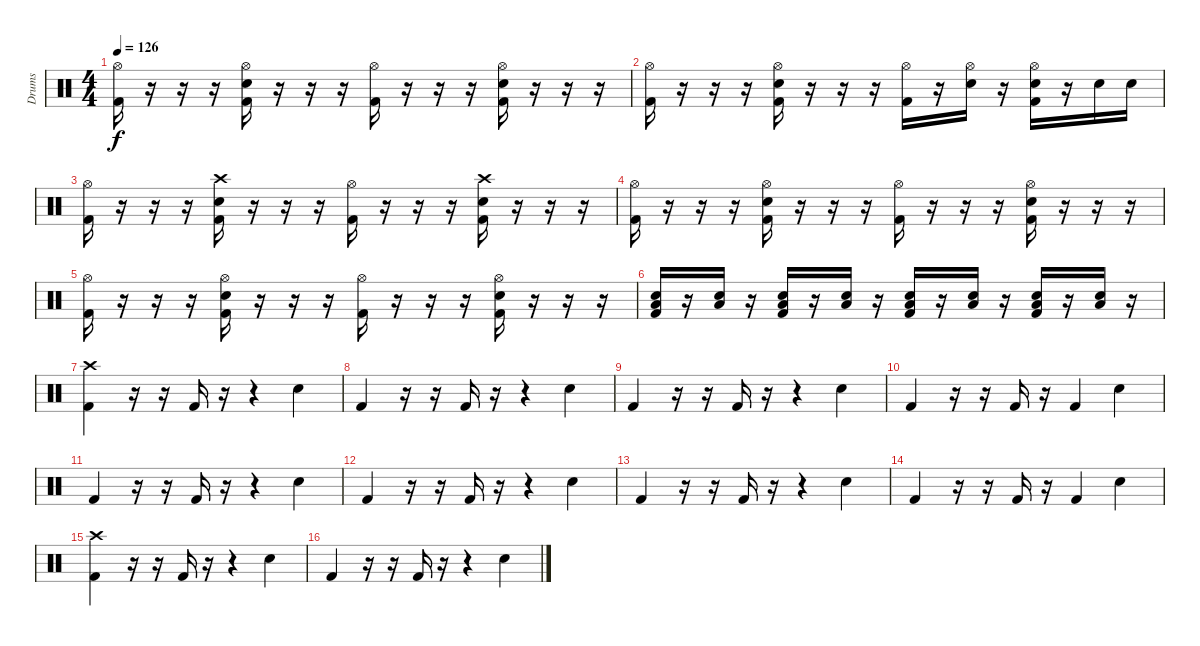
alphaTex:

\track ("Drums" "Drums") {instrument percussion}
\staff {score}
\articulation defaults
\ts (4 4)
\tempo 126
\clef neutral
\ks c
("Hi-Hat (open)" "Kick (hit) 2").16{dy f} r.16 r.16 r.16 ("Hi-Hat (open)" "Snare (hit) 2" "Kick (hit) 2").16 r.16 r.16 r.16 ("Hi-Hat (open)" "Kick (hit) 2").16 r.16 r.16 r.16 ("Hi-Hat (open)" "Snare (hit) 2" "Kick (hit) 2").16 r.16 r.16 r.16 |
("Hi-Hat (open)" "Kick (hit) 2").16 r.16 r.16 r.16 ("Hi-Hat (open)" "Snare (hit) 2" "Kick (hit) 2").16 r.16 r.16 r.16 ("Hi-Hat (open)" "Kick (hit) 2").16 r.16 ("Hi-Hat (open)" "Snare (hit) 2").16 r.16 ("Hi-Hat (open)" "Snare (hit) 2" "Kick (hit) 2").16 r.16 "Snare (hit) 2".16 "Snare (hit) 2".16 |
("Hi-Hat (open)" "Kick (hit) 2").16 r.16 r.16 r.16 ("Crash high (hit)" "Snare (hit) 2" "Kick (hit) 2").16 r.16 r.16 r.16 ("Hi-Hat (open)" "Kick (hit) 2").16 r.16 r.16 r.16 ("Crash high (hit)" "Snare (hit) 2" "Kick (hit) 2").16 r.16 r.16 r.16 |
("Hi-Hat (open)" "Kick (hit) 2").16 r.16 r.16 r.16 ("Hi-Hat (open)" "Snare (hit) 2" "Kick (hit) 2").16 r.16 r.16 r.16 ("Hi-Hat (open)" "Kick (hit) 2").16 r.16 r.16 r.16 ("Hi-Hat (open)" "Snare (hit) 2" "Kick (hit) 2").16 r.16 r.16 r.16 |
("Hi-Hat (open)" "Kick (hit) 2").16 r.16 r.16 r.16 ("Hi-Hat (open)" "Snare (hit) 2" "Kick (hit) 2").16 r.16 r.16 r.16 ("Hi-Hat (open)" "Kick (hit) 2").16 r.16 r.16 r.16 ("Hi-Hat (open)" "Snare (hit) 2" "Kick (hit) 2").16 r.16 r.16 r.16 |
("Snare (hit) 2" "Low Floor Tom (hit)" "Kick (hit) 2").16{volume 6} r.16 ("Snare (hit) 2" "Low Floor Tom (hit)").16{volume 7} r.16 ("Snare (hit) 2" "Low Floor Tom (hit)" "Kick (hit) 2").16{volume 8} r.16 ("Snare (hit) 2" "Low Floor Tom (hit)").16{volume 9} r.16 ("Snare (hit) 2" "Low Floor Tom (hit)" "Kick (hit) 2").16{volume 10} r.16 ("Snare (hit) 2" "Low Floor Tom (hit)").16{volume 11} r.16 ("Snare (hit) 2" "Low Floor Tom (hit)" "Kick (hit) 2").16{volume 12} r.16 ("Snare (hit) 2" "Low Floor Tom (hit)").16{volume 15} r.16 |
("Crash high (hit)" "Kick (hit) 2").4 r.16 r.16 "Kick (hit) 2".16 r.16 r.4 "Hand Clap (hit)".4 |
"Kick (hit) 2".4 r.16 r.16 "Kick (hit) 2".16 r.16 r.4 "Hand Clap (hit)".4 |
"Kick (hit) 2".4 r.16 r.16 "Kick (hit) 2".16 r.16 r.4 "Hand Clap (hit)".4 |
"Kick (hit) 2".4 r.16 r.16 "Kick (hit) 2".16 r.16 "Kick (hit) 2".4 "Hand Clap (hit)".4 |
"Kick (hit) 2".4 r.16 r.16 "Kick (hit) 2".16 r.16 r.4 "Hand Clap (hit)".4 |
"Kick (hit) 2".4 r.16 r.16 "Kick (hit) 2".16 r.16 r.4 "Hand Clap (hit)".4 |
"Kick (hit) 2".4 r.16 r.16 "Kick (hit) 2".16 r.16 r.4 "Hand Clap (hit)".4 |
"Kick (hit) 2".4 r.16 r.16 "Kick (hit) 2".16 r.16 "Kick (hit) 2".4 "Hand Clap (hit)".4 |
("Crash high (hit)" "Kick (hit) 2").4 r.16 r.16 "Kick (hit) 2".16 r.16 r.4 "Hand Clap (hit)".4 |
"Kick (hit) 2".4 r.16 r.16 "Kick (hit) 2".16 r.16 r.4 "Hand Clap (hit)".4
